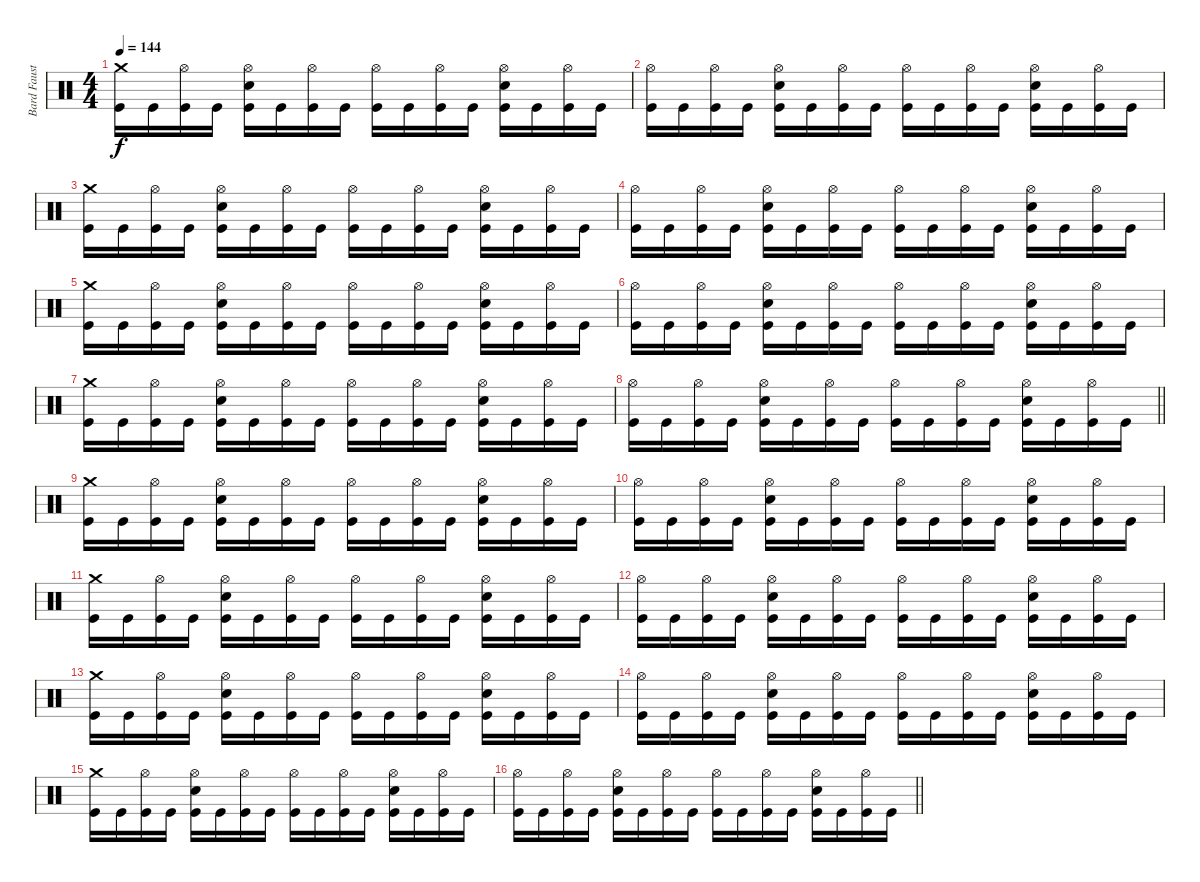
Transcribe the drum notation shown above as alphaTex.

\track ("Bard Faust" "Bard Faust") {instrument percussion}
\staff {score}
\articulation defaults
\ts (4 4)
\section ("" "")
\tempo 144
\clef neutral
\ks c
("Crash medium (hit)" "Kick (hit)").16{dy f} "Kick (hit)".16 ("Hi-Hat (open)" "Kick (hit)").16 "Kick (hit)".16 ("Hi-Hat (open)" "Snare (hit) 2" "Kick (hit)").16 "Kick (hit)".16 ("Hi-Hat (open)" "Kick (hit)").16 "Kick (hit)".16 ("Hi-Hat (open)" "Kick (hit)").16 "Kick (hit)".16 ("Hi-Hat (open)" "Kick (hit)").16 "Kick (hit)".16 ("Hi-Hat (open)" "Snare (hit) 2" "Kick (hit)").16 "Kick (hit)".16 ("Hi-Hat (open)" "Kick (hit)").16 "Kick (hit)".16 |
("Hi-Hat (open)" "Kick (hit)").16 "Kick (hit)".16 ("Hi-Hat (open)" "Kick (hit)").16 "Kick (hit)".16 ("Hi-Hat (open)" "Snare (hit) 2" "Kick (hit)").16 "Kick (hit)".16 ("Hi-Hat (open)" "Kick (hit)").16 "Kick (hit)".16 ("Hi-Hat (open)" "Kick (hit)").16 "Kick (hit)".16 ("Hi-Hat (open)" "Kick (hit)").16 "Kick (hit)".16 ("Hi-Hat (open)" "Snare (hit) 2" "Kick (hit)").16 "Kick (hit)".16 ("Hi-Hat (open)" "Kick (hit)").16 "Kick (hit)".16 |
("Crash medium (hit)" "Kick (hit)").16 "Kick (hit)".16 ("Hi-Hat (open)" "Kick (hit)").16 "Kick (hit)".16 ("Hi-Hat (open)" "Snare (hit) 2" "Kick (hit)").16 "Kick (hit)".16 ("Hi-Hat (open)" "Kick (hit)").16 "Kick (hit)".16 ("Hi-Hat (open)" "Kick (hit)").16 "Kick (hit)".16 ("Hi-Hat (open)" "Kick (hit)").16 "Kick (hit)".16 ("Hi-Hat (open)" "Snare (hit) 2" "Kick (hit)").16 "Kick (hit)".16 ("Hi-Hat (open)" "Kick (hit)").16 "Kick (hit)".16 |
("Hi-Hat (open)" "Kick (hit)").16 "Kick (hit)".16 ("Hi-Hat (open)" "Kick (hit)").16 "Kick (hit)".16 ("Hi-Hat (open)" "Snare (hit) 2" "Kick (hit)").16 "Kick (hit)".16 ("Hi-Hat (open)" "Kick (hit)").16 "Kick (hit)".16 ("Hi-Hat (open)" "Kick (hit)").16 "Kick (hit)".16 ("Hi-Hat (open)" "Kick (hit)").16 "Kick (hit)".16 ("Hi-Hat (open)" "Snare (hit) 2" "Kick (hit)").16 "Kick (hit)".16 ("Hi-Hat (open)" "Kick (hit)").16 "Kick (hit)".16 |
("Crash medium (hit)" "Kick (hit)").16 "Kick (hit)".16 ("Hi-Hat (open)" "Kick (hit)").16 "Kick (hit)".16 ("Hi-Hat (open)" "Snare (hit) 2" "Kick (hit)").16 "Kick (hit)".16 ("Hi-Hat (open)" "Kick (hit)").16 "Kick (hit)".16 ("Hi-Hat (open)" "Kick (hit)").16 "Kick (hit)".16 ("Hi-Hat (open)" "Kick (hit)").16 "Kick (hit)".16 ("Hi-Hat (open)" "Snare (hit) 2" "Kick (hit)").16 "Kick (hit)".16 ("Hi-Hat (open)" "Kick (hit)").16 "Kick (hit)".16 |
("Hi-Hat (open)" "Kick (hit)").16 "Kick (hit)".16 ("Hi-Hat (open)" "Kick (hit)").16 "Kick (hit)".16 ("Hi-Hat (open)" "Snare (hit) 2" "Kick (hit)").16 "Kick (hit)".16 ("Hi-Hat (open)" "Kick (hit)").16 "Kick (hit)".16 ("Hi-Hat (open)" "Kick (hit)").16 "Kick (hit)".16 ("Hi-Hat (open)" "Kick (hit)").16 "Kick (hit)".16 ("Hi-Hat (open)" "Snare (hit) 2" "Kick (hit)").16 "Kick (hit)".16 ("Hi-Hat (open)" "Kick (hit)").16 "Kick (hit)".16 |
("Crash medium (hit)" "Kick (hit)").16 "Kick (hit)".16 ("Hi-Hat (open)" "Kick (hit)").16 "Kick (hit)".16 ("Hi-Hat (open)" "Snare (hit) 2" "Kick (hit)").16 "Kick (hit)".16 ("Hi-Hat (open)" "Kick (hit)").16 "Kick (hit)".16 ("Hi-Hat (open)" "Kick (hit)").16 "Kick (hit)".16 ("Hi-Hat (open)" "Kick (hit)").16 "Kick (hit)".16 ("Hi-Hat (open)" "Snare (hit) 2" "Kick (hit)").16 "Kick (hit)".16 ("Hi-Hat (open)" "Kick (hit)").16 "Kick (hit)".16 |
\barLineRight lightlight
("Hi-Hat (open)" "Kick (hit)").16 "Kick (hit)".16 ("Hi-Hat (open)" "Kick (hit)").16 "Kick (hit)".16 ("Hi-Hat (open)" "Snare (hit) 2" "Kick (hit)").16 "Kick (hit)".16 ("Hi-Hat (open)" "Kick (hit)").16 "Kick (hit)".16 ("Hi-Hat (open)" "Kick (hit)").16 "Kick (hit)".16 ("Hi-Hat (open)" "Kick (hit)").16 "Kick (hit)".16 ("Hi-Hat (open)" "Snare (hit) 2" "Kick (hit)").16 "Kick (hit)".16 ("Hi-Hat (open)" "Kick (hit)").16 "Kick (hit)".16 |
\section ("" "")
("Crash medium (hit)" "Kick (hit)").16 "Kick (hit)".16 ("Hi-Hat (open)" "Kick (hit)").16 "Kick (hit)".16 ("Hi-Hat (open)" "Snare (hit) 2" "Kick (hit)").16 "Kick (hit)".16 ("Hi-Hat (open)" "Kick (hit)").16 "Kick (hit)".16 ("Hi-Hat (open)" "Kick (hit)").16 "Kick (hit)".16 ("Hi-Hat (open)" "Kick (hit)").16 "Kick (hit)".16 ("Hi-Hat (open)" "Snare (hit) 2" "Kick (hit)").16 "Kick (hit)".16 ("Hi-Hat (open)" "Kick (hit)").16 "Kick (hit)".16 |
("Hi-Hat (open)" "Kick (hit)").16 "Kick (hit)".16 ("Hi-Hat (open)" "Kick (hit)").16 "Kick (hit)".16 ("Hi-Hat (open)" "Snare (hit) 2" "Kick (hit)").16 "Kick (hit)".16 ("Hi-Hat (open)" "Kick (hit)").16 "Kick (hit)".16 ("Hi-Hat (open)" "Kick (hit)").16 "Kick (hit)".16 ("Hi-Hat (open)" "Kick (hit)").16 "Kick (hit)".16 ("Hi-Hat (open)" "Snare (hit) 2" "Kick (hit)").16 "Kick (hit)".16 ("Hi-Hat (open)" "Kick (hit)").16 "Kick (hit)".16 |
("Crash medium (hit)" "Kick (hit)").16 "Kick (hit)".16 ("Hi-Hat (open)" "Kick (hit)").16 "Kick (hit)".16 ("Hi-Hat (open)" "Snare (hit) 2" "Kick (hit)").16 "Kick (hit)".16 ("Hi-Hat (open)" "Kick (hit)").16 "Kick (hit)".16 ("Hi-Hat (open)" "Kick (hit)").16 "Kick (hit)".16 ("Hi-Hat (open)" "Kick (hit)").16 "Kick (hit)".16 ("Hi-Hat (open)" "Snare (hit) 2" "Kick (hit)").16 "Kick (hit)".16 ("Hi-Hat (open)" "Kick (hit)").16 "Kick (hit)".16 |
("Hi-Hat (open)" "Kick (hit)").16 "Kick (hit)".16 ("Hi-Hat (open)" "Kick (hit)").16 "Kick (hit)".16 ("Hi-Hat (open)" "Snare (hit) 2" "Kick (hit)").16 "Kick (hit)".16 ("Hi-Hat (open)" "Kick (hit)").16 "Kick (hit)".16 ("Hi-Hat (open)" "Kick (hit)").16 "Kick (hit)".16 ("Hi-Hat (open)" "Kick (hit)").16 "Kick (hit)".16 ("Hi-Hat (open)" "Snare (hit) 2" "Kick (hit)").16 "Kick (hit)".16 ("Hi-Hat (open)" "Kick (hit)").16 "Kick (hit)".16 |
("Crash medium (hit)" "Kick (hit)").16 "Kick (hit)".16 ("Hi-Hat (open)" "Kick (hit)").16 "Kick (hit)".16 ("Hi-Hat (open)" "Snare (hit) 2" "Kick (hit)").16 "Kick (hit)".16 ("Hi-Hat (open)" "Kick (hit)").16 "Kick (hit)".16 ("Hi-Hat (open)" "Kick (hit)").16 "Kick (hit)".16 ("Hi-Hat (open)" "Kick (hit)").16 "Kick (hit)".16 ("Hi-Hat (open)" "Snare (hit) 2" "Kick (hit)").16 "Kick (hit)".16 ("Hi-Hat (open)" "Kick (hit)").16 "Kick (hit)".16 |
("Hi-Hat (open)" "Kick (hit)").16 "Kick (hit)".16 ("Hi-Hat (open)" "Kick (hit)").16 "Kick (hit)".16 ("Hi-Hat (open)" "Snare (hit) 2" "Kick (hit)").16 "Kick (hit)".16 ("Hi-Hat (open)" "Kick (hit)").16 "Kick (hit)".16 ("Hi-Hat (open)" "Kick (hit)").16 "Kick (hit)".16 ("Hi-Hat (open)" "Kick (hit)").16 "Kick (hit)".16 ("Hi-Hat (open)" "Snare (hit) 2" "Kick (hit)").16 "Kick (hit)".16 ("Hi-Hat (open)" "Kick (hit)").16 "Kick (hit)".16 |
("Crash medium (hit)" "Kick (hit)").16 "Kick (hit)".16 ("Hi-Hat (open)" "Kick (hit)").16 "Kick (hit)".16 ("Hi-Hat (open)" "Snare (hit) 2" "Kick (hit)").16 "Kick (hit)".16 ("Hi-Hat (open)" "Kick (hit)").16 "Kick (hit)".16 ("Hi-Hat (open)" "Kick (hit)").16 "Kick (hit)".16 ("Hi-Hat (open)" "Kick (hit)").16 "Kick (hit)".16 ("Hi-Hat (open)" "Snare (hit) 2" "Kick (hit)").16 "Kick (hit)".16 ("Hi-Hat (open)" "Kick (hit)").16 "Kick (hit)".16 |
\barLineRight lightlight
("Hi-Hat (open)" "Kick (hit)").16 "Kick (hit)".16 ("Hi-Hat (open)" "Kick (hit)").16 "Kick (hit)".16 ("Hi-Hat (open)" "Snare (hit) 2" "Kick (hit)").16 "Kick (hit)".16 ("Hi-Hat (open)" "Kick (hit)").16 "Kick (hit)".16 ("Hi-Hat (open)" "Kick (hit)").16 "Kick (hit)".16 ("Hi-Hat (open)" "Kick (hit)").16 "Kick (hit)".16 ("Hi-Hat (open)" "Snare (hit) 2" "Kick (hit)").16 "Kick (hit)".16 ("Hi-Hat (open)" "Kick (hit)").16 "Kick (hit)".16
